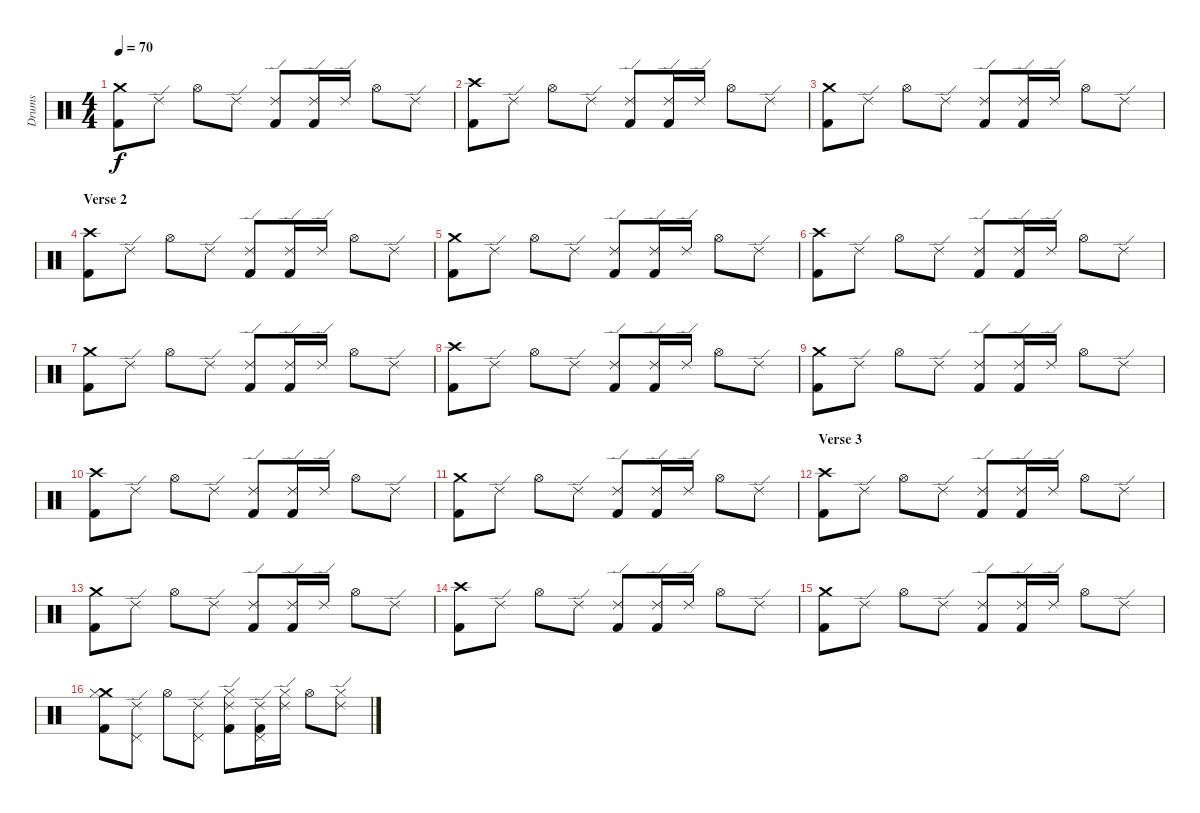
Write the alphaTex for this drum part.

\track ("Drums" "Drums") {instrument percussion}
\staff {score}
\articulation defaults
\ts (4 4)
\tempo 70
\clef neutral
\ks c
("Crash medium (hit)" "Kick (hit) 2").8{dy f} "Ride (edge) 2".8 "Hi-Hat (open)".8 "Ride (edge) 2".8 ("Ride (edge) 2" "Kick (hit) 2").8 ("Ride (edge) 2" "Kick (hit) 2").16 "Ride (edge) 2".16 "Hi-Hat (open)".8 "Ride (edge) 2".8 |
("Crash high (hit)" "Kick (hit) 2").8 "Ride (edge) 2".8 "Hi-Hat (open)".8 "Ride (edge) 2".8 ("Ride (edge) 2" "Kick (hit) 2").8 ("Ride (edge) 2" "Kick (hit) 2").16 "Ride (edge) 2".16 "Hi-Hat (open)".8 "Ride (edge) 2".8 |
("Crash medium (hit)" "Kick (hit) 2").8 "Ride (edge) 2".8 "Hi-Hat (open)".8 "Ride (edge) 2".8 ("Ride (edge) 2" "Kick (hit) 2").8 ("Ride (edge) 2" "Kick (hit) 2").16 "Ride (edge) 2".16 "Hi-Hat (open)".8 "Ride (edge) 2".8 |
\section ("" "Verse 2")
("Crash high (hit)" "Kick (hit) 2").8 "Ride (edge) 2".8 "Hi-Hat (open)".8 "Ride (edge) 2".8 ("Ride (edge) 2" "Kick (hit) 2").8 ("Ride (edge) 2" "Kick (hit) 2").16 "Ride (edge) 2".16 "Hi-Hat (open)".8 "Ride (edge) 2".8 |
("Crash medium (hit)" "Kick (hit) 2").8 "Ride (edge) 2".8 "Hi-Hat (open)".8 "Ride (edge) 2".8 ("Ride (edge) 2" "Kick (hit) 2").8 ("Ride (edge) 2" "Kick (hit) 2").16 "Ride (edge) 2".16 "Hi-Hat (open)".8 "Ride (edge) 2".8 |
("Crash high (hit)" "Kick (hit) 2").8 "Ride (edge) 2".8 "Hi-Hat (open)".8 "Ride (edge) 2".8 ("Ride (edge) 2" "Kick (hit) 2").8 ("Ride (edge) 2" "Kick (hit) 2").16 "Ride (edge) 2".16 "Hi-Hat (open)".8 "Ride (edge) 2".8 |
("Crash medium (hit)" "Kick (hit) 2").8 "Ride (edge) 2".8 "Hi-Hat (open)".8 "Ride (edge) 2".8 ("Ride (edge) 2" "Kick (hit) 2").8 ("Ride (edge) 2" "Kick (hit) 2").16 "Ride (edge) 2".16 "Hi-Hat (open)".8 "Ride (edge) 2".8 |
("Crash high (hit)" "Kick (hit) 2").8 "Ride (edge) 2".8 "Hi-Hat (open)".8 "Ride (edge) 2".8 ("Ride (edge) 2" "Kick (hit) 2").8 ("Ride (edge) 2" "Kick (hit) 2").16 "Ride (edge) 2".16 "Hi-Hat (open)".8 "Ride (edge) 2".8 |
("Crash medium (hit)" "Kick (hit) 2").8 "Ride (edge) 2".8 "Hi-Hat (open)".8 "Ride (edge) 2".8 ("Ride (edge) 2" "Kick (hit) 2").8 ("Ride (edge) 2" "Kick (hit) 2").16 "Ride (edge) 2".16 "Hi-Hat (open)".8 "Ride (edge) 2".8 |
("Crash high (hit)" "Kick (hit) 2").8 "Ride (edge) 2".8 "Hi-Hat (open)".8 "Ride (edge) 2".8 ("Ride (edge) 2" "Kick (hit) 2").8 ("Ride (edge) 2" "Kick (hit) 2").16 "Ride (edge) 2".16 "Hi-Hat (open)".8 "Ride (edge) 2".8 |
("Crash medium (hit)" "Kick (hit) 2").8 "Ride (edge) 2".8 "Hi-Hat (open)".8 "Ride (edge) 2".8 ("Ride (edge) 2" "Kick (hit) 2").8 ("Ride (edge) 2" "Kick (hit) 2").16 "Ride (edge) 2".16 "Hi-Hat (open)".8 "Ride (edge) 2".8 |
\section ("" "Verse 3")
("Crash high (hit)" "Kick (hit) 2").8 "Ride (edge) 2".8 "Hi-Hat (open)".8 "Ride (edge) 2".8 ("Ride (edge) 2" "Kick (hit) 2").8 ("Ride (edge) 2" "Kick (hit) 2").16 "Ride (edge) 2".16 "Hi-Hat (open)".8 "Ride (edge) 2".8 |
("Crash medium (hit)" "Kick (hit) 2").8 "Ride (edge) 2".8 "Hi-Hat (open)".8 "Ride (edge) 2".8 ("Ride (edge) 2" "Kick (hit) 2").8 ("Ride (edge) 2" "Kick (hit) 2").16 "Ride (edge) 2".16 "Hi-Hat (open)".8 "Ride (edge) 2".8 |
("Crash high (hit)" "Kick (hit) 2").8 "Ride (edge) 2".8 "Hi-Hat (open)".8 "Ride (edge) 2".8 ("Ride (edge) 2" "Kick (hit) 2").8 ("Ride (edge) 2" "Kick (hit) 2").16 "Ride (edge) 2".16 "Hi-Hat (open)".8 "Ride (edge) 2".8 |
("Crash medium (hit)" "Kick (hit) 2").8 "Ride (edge) 2".8 "Hi-Hat (open)".8 "Ride (edge) 2".8 ("Ride (edge) 2" "Kick (hit) 2").8 ("Ride (edge) 2" "Kick (hit) 2").16 "Ride (edge) 2".16 "Hi-Hat (open)".8 "Ride (edge) 2".8 |
("Crash medium (hit)" "Hi-Hat (closed)" "Kick (hit) 2").8 ("Ride (edge) 2" "Pedal Hi-Hat (hit)").8 "Hi-Hat (open)".8 ("Ride (edge) 2" "Pedal Hi-Hat (hit)").8 ("Ride (edge) 2" "Hi-Hat (closed)" "Kick (hit) 2").8 ("Ride (edge) 2" "Pedal Hi-Hat (hit)" "Kick (hit) 2").16 ("Ride (edge) 2" "Hi-Hat (closed)").16 "Hi-Hat (open)".8 ("Ride (edge) 2" "Hi-Hat (closed)").8
